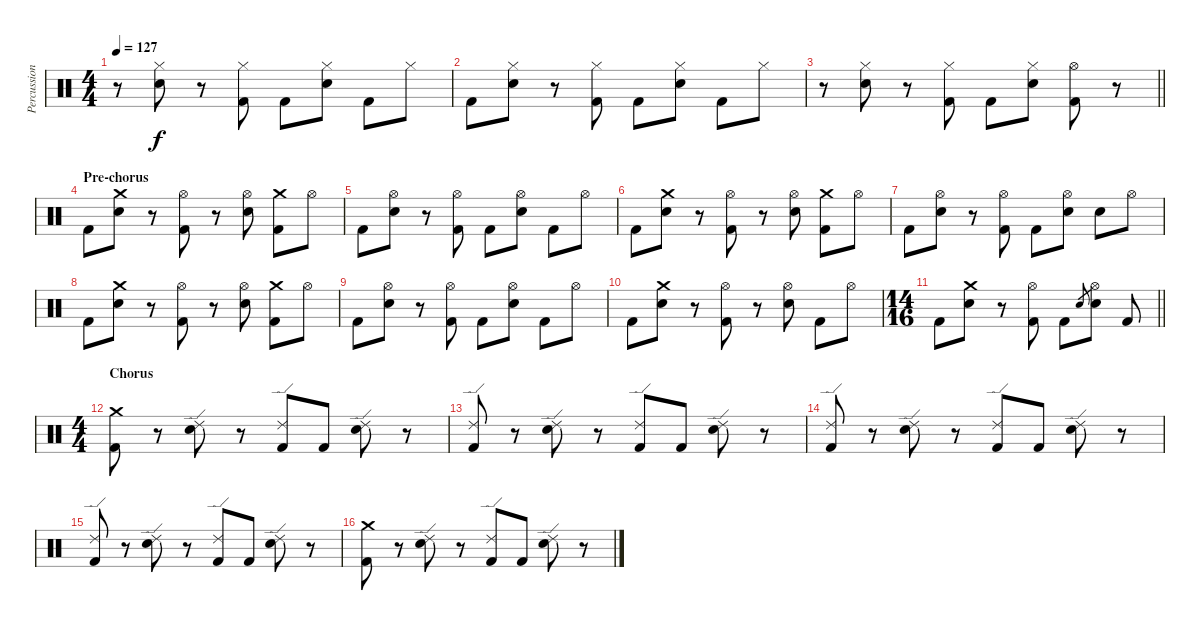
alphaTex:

\track ("Percussion" "Percussion") {instrument percussion}
\staff {score}
\articulation defaults
\ts (4 4)
\tempo 127
\clef neutral
\ks c
r.8{dy f} ("Hi-Hat (closed)" "Electric Snare (hit)").8 r.8 ("Hi-Hat (closed)" "Kick (hit) 2").8 "Kick (hit) 2".8 ("Hi-Hat (closed)" "Electric Snare (hit)").8 "Kick (hit) 2".8 "Hi-Hat (closed)".8 |
"Kick (hit) 2".8 ("Hi-Hat (closed)" "Electric Snare (hit)").8 r.8 ("Hi-Hat (closed)" "Kick (hit) 2").8 "Kick (hit) 2".8 ("Hi-Hat (closed)" "Electric Snare (hit)").8 "Kick (hit) 2".8 "Hi-Hat (closed)".8 |
\barLineRight lightlight
r.8 ("Hi-Hat (closed)" "Electric Snare (hit)").8 r.8 ("Hi-Hat (closed)" "Kick (hit) 2").8 "Kick (hit) 2".8 ("Hi-Hat (closed)" "Electric Snare (hit)").8 ("Hi-Hat (open)" "Kick (hit) 2").8 r.8 |
\section ("" "Pre-chorus")
"Kick (hit) 2".8 ("Crash medium (hit)" "Electric Snare (hit)").8 r.8 ("Hi-Hat (open)" "Kick (hit) 2").8 r.8 ("Hi-Hat (open)" "Electric Snare (hit)").8 ("Crash medium (hit)" "Kick (hit) 2").8 "Hi-Hat (open)".8 |
"Kick (hit) 2".8 ("Hi-Hat (open)" "Electric Snare (hit)").8 r.8 ("Hi-Hat (open)" "Kick (hit) 2").8 "Kick (hit) 2".8 ("Hi-Hat (open)" "Electric Snare (hit)").8 "Kick (hit) 2".8 "Hi-Hat (open)".8 |
"Kick (hit) 2".8 ("Crash medium (hit)" "Electric Snare (hit)").8 r.8 ("Hi-Hat (open)" "Kick (hit) 2").8 r.8 ("Hi-Hat (open)" "Electric Snare (hit)").8 ("Crash medium (hit)" "Kick (hit) 2").8 "Hi-Hat (open)".8 |
"Kick (hit) 2".8 ("Hi-Hat (open)" "Electric Snare (hit)").8 r.8 ("Hi-Hat (open)" "Kick (hit) 2").8 "Kick (hit) 2".8 ("Hi-Hat (open)" "Electric Snare (hit)").8 "Electric Snare (hit)".8 "Hi-Hat (open)".8 |
"Kick (hit) 2".8 ("Crash medium (hit)" "Electric Snare (hit)").8 r.8 ("Hi-Hat (open)" "Kick (hit) 2").8 r.8 ("Hi-Hat (open)" "Electric Snare (hit)").8 ("Crash medium (hit)" "Kick (hit) 2").8 "Hi-Hat (open)".8 |
"Kick (hit) 2".8 ("Hi-Hat (open)" "Electric Snare (hit)").8 r.8 ("Hi-Hat (open)" "Kick (hit) 2").8 "Kick (hit) 2".8 ("Hi-Hat (open)" "Electric Snare (hit)").8 "Kick (hit) 2".8 "Hi-Hat (open)".8 |
"Kick (hit) 2".8 ("Crash medium (hit)" "Electric Snare (hit)").8 r.8 ("Hi-Hat (open)" "Kick (hit) 2").8 r.8 ("Hi-Hat (open)" "Electric Snare (hit)").8 "Kick (hit) 2".8 "Hi-Hat (open)".8 |
\ts (14 16)
\barLineRight lightlight "Kick (hit) 2".8
("Crash medium (hit)" "Electric Snare (hit)").8 r.8 ("Hi-Hat (open)" "Kick (hit) 2").8 "Kick (hit) 2".8 "Electric Snare (hit)".8{gr} ("Hi-Hat (open)" "Electric Snare (hit)").8 "Kick (hit) 2".8 |
\ts (4 4)
\section ("" "Chorus")
("Crash medium (hit)" "Kick (hit) 2").8 r.8 ("Ride (edge) 2" "Electric Snare (hit)").8 r.8 ("Ride (edge) 2" "Kick (hit) 2").8 "Kick (hit) 2".8 ("Ride (edge) 2" "Electric Snare (hit)").8 r.8 |
("Ride (edge) 2" "Kick (hit) 2").8 r.8 ("Ride (edge) 2" "Electric Snare (hit)").8 r.8 ("Ride (edge) 2" "Kick (hit) 2").8 "Kick (hit) 2".8 ("Ride (edge) 2" "Electric Snare (hit)").8 r.8 |
("Ride (edge) 2" "Kick (hit) 2").8 r.8 ("Ride (edge) 2" "Electric Snare (hit)").8 r.8 ("Ride (edge) 2" "Kick (hit) 2").8 "Kick (hit) 2".8 ("Ride (edge) 2" "Electric Snare (hit)").8 r.8 |
("Ride (edge) 2" "Kick (hit) 2").8 r.8 ("Ride (edge) 2" "Electric Snare (hit)").8 r.8 ("Ride (edge) 2" "Kick (hit) 2").8 "Kick (hit) 2".8 ("Ride (edge) 2" "Electric Snare (hit)").8 r.8 |
("Crash medium (hit)" "Kick (hit) 2").8 r.8 ("Ride (edge) 2" "Electric Snare (hit)").8 r.8 ("Ride (edge) 2" "Kick (hit) 2").8 "Kick (hit) 2".8 ("Ride (edge) 2" "Electric Snare (hit)").8 r.8
